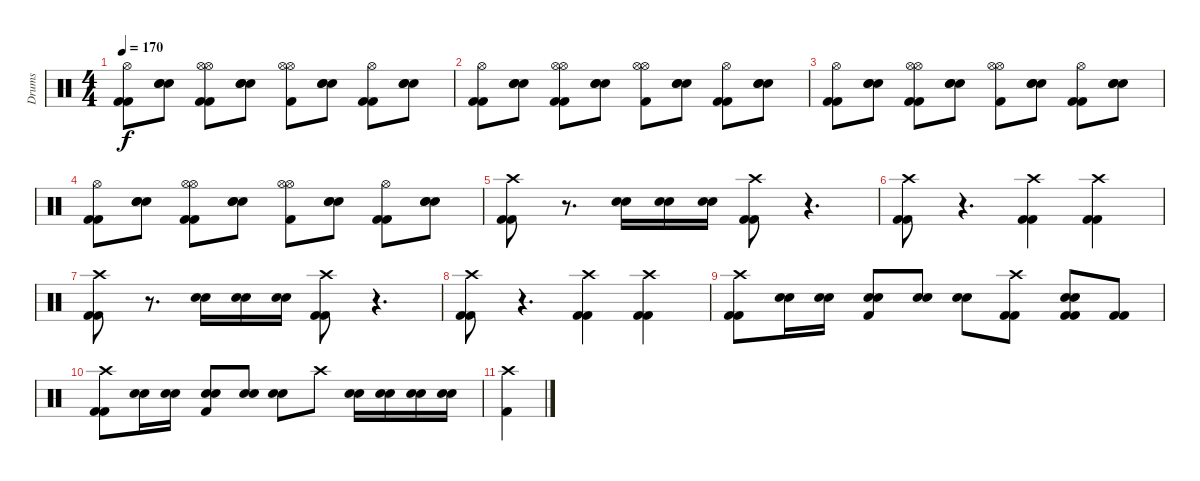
\track ("Drums" "Drums") {instrument percussion}
\staff {score}
\articulation defaults
\ts (4 4)
\tempo 170
\clef neutral
\ks c
("Hi-Hat (open)" "Kick (hit) 2" "Kick (hit) 2").8{dy f} ("Electric Snare (hit)" "Electric Snare (hit)" "Snare (hit) 2").8 ("Hi-Hat (open)" "Hi-Hat (open)" "Kick (hit) 2" "Kick (hit) 2").8 ("Electric Snare (hit)" "Electric Snare (hit)" "Snare (hit) 2").8 ("Hi-Hat (open)" "Hi-Hat (open)" "Kick (hit) 2").8 ("Electric Snare (hit)" "Electric Snare (hit)" "Snare (hit) 2").8 ("Hi-Hat (open)" "Kick (hit) 2" "Kick (hit) 2").8 ("Electric Snare (hit)" "Electric Snare (hit)" "Snare (hit) 2").8 |
("Hi-Hat (open)" "Kick (hit) 2" "Kick (hit) 2").8 ("Electric Snare (hit)" "Electric Snare (hit)" "Snare (hit) 2").8 ("Hi-Hat (open)" "Hi-Hat (open)" "Kick (hit) 2" "Kick (hit) 2").8 ("Electric Snare (hit)" "Electric Snare (hit)" "Snare (hit) 2").8 ("Hi-Hat (open)" "Hi-Hat (open)" "Kick (hit) 2").8 ("Electric Snare (hit)" "Electric Snare (hit)" "Snare (hit) 2").8 ("Hi-Hat (open)" "Kick (hit) 2" "Kick (hit) 2").8 ("Electric Snare (hit)" "Electric Snare (hit)" "Snare (hit) 2").8 |
("Hi-Hat (open)" "Kick (hit) 2" "Kick (hit) 2").8 ("Electric Snare (hit)" "Electric Snare (hit)" "Snare (hit) 2").8 ("Hi-Hat (open)" "Hi-Hat (open)" "Kick (hit) 2" "Kick (hit) 2").8 ("Electric Snare (hit)" "Electric Snare (hit)" "Snare (hit) 2").8 ("Hi-Hat (open)" "Hi-Hat (open)" "Kick (hit) 2").8 ("Electric Snare (hit)" "Electric Snare (hit)" "Snare (hit) 2").8 ("Hi-Hat (open)" "Kick (hit) 2" "Kick (hit) 2").8 ("Electric Snare (hit)" "Electric Snare (hit)" "Snare (hit) 2").8 |
("Hi-Hat (open)" "Kick (hit) 2" "Kick (hit) 2").8 ("Electric Snare (hit)" "Electric Snare (hit)" "Snare (hit) 2").8 ("Hi-Hat (open)" "Hi-Hat (open)" "Kick (hit) 2" "Kick (hit) 2").8 ("Electric Snare (hit)" "Electric Snare (hit)" "Snare (hit) 2").8 ("Hi-Hat (open)" "Hi-Hat (open)" "Kick (hit) 2").8 ("Electric Snare (hit)" "Electric Snare (hit)" "Snare (hit) 2").8 ("Hi-Hat (open)" "Kick (hit) 2" "Kick (hit) 2").8 ("Electric Snare (hit)" "Electric Snare (hit)" "Snare (hit) 2").8 |
("Crash high (hit)" "Kick (hit) 2" "Kick (hit) 2").8 r.8{d} ("Snare (hit) 2" "Electric Snare (hit)").16 ("Snare (hit) 2" "Electric Snare (hit)").16 ("Snare (hit) 2" "Electric Snare (hit)").16 ("Crash high (hit)" "Kick (hit) 2" "Kick (hit) 2").8 r.4{d} |
("Crash high (hit)" "Kick (hit) 2" "Kick (hit) 2").8 r.4{d} ("Crash high (hit)" "Kick (hit) 2" "Kick (hit) 2").4 ("Crash high (hit)" "Kick (hit) 2" "Kick (hit) 2").4 |
("Crash high (hit)" "Kick (hit) 2" "Kick (hit) 2").8 r.8{d} ("Snare (hit) 2" "Electric Snare (hit)").16 ("Snare (hit) 2" "Electric Snare (hit)").16 ("Snare (hit) 2" "Electric Snare (hit)").16 ("Crash high (hit)" "Kick (hit) 2" "Kick (hit) 2").8 r.4{d} |
("Crash high (hit)" "Kick (hit) 2" "Kick (hit) 2").8 r.4{d} ("Crash high (hit)" "Kick (hit) 2" "Kick (hit) 2").4 ("Crash high (hit)" "Kick (hit) 2" "Kick (hit) 2").4 |
("Crash high (hit)" "Kick (hit) 2" "Kick (hit) 2").8 ("Snare (hit) 2" "Electric Snare (hit)").16 ("Snare (hit) 2" "Electric Snare (hit)").16 ("Snare (hit) 2" "Electric Snare (hit)" "Kick (hit) 2").8 ("Snare (hit) 2" "Electric Snare (hit)").8 ("Snare (hit) 2" "Electric Snare (hit)").8 ("Crash high (hit)" "Kick (hit) 2" "Kick (hit) 2").8 ("Snare (hit) 2" "Electric Snare (hit)" "Kick (hit) 2" "Kick (hit) 2").8 ("Kick (hit) 2" "Kick (hit) 2").8 |
("Crash high (hit)" "Kick (hit) 2" "Kick (hit) 2").8 ("Snare (hit) 2" "Electric Snare (hit)").16 ("Snare (hit) 2" "Electric Snare (hit)").16 ("Snare (hit) 2" "Electric Snare (hit)" "Kick (hit) 2").8 ("Snare (hit) 2" "Electric Snare (hit)").8 ("Snare (hit) 2" "Electric Snare (hit)").8 "Crash high (hit)".8 ("Snare (hit) 2" "Electric Snare (hit)").16 ("Electric Snare (hit)" "Snare (hit) 2").16 ("Snare (hit) 2" "Electric Snare (hit)").16 ("Snare (hit) 2" "Electric Snare (hit)").16 |
("Crash high (hit)" "Kick (hit) 2").4
